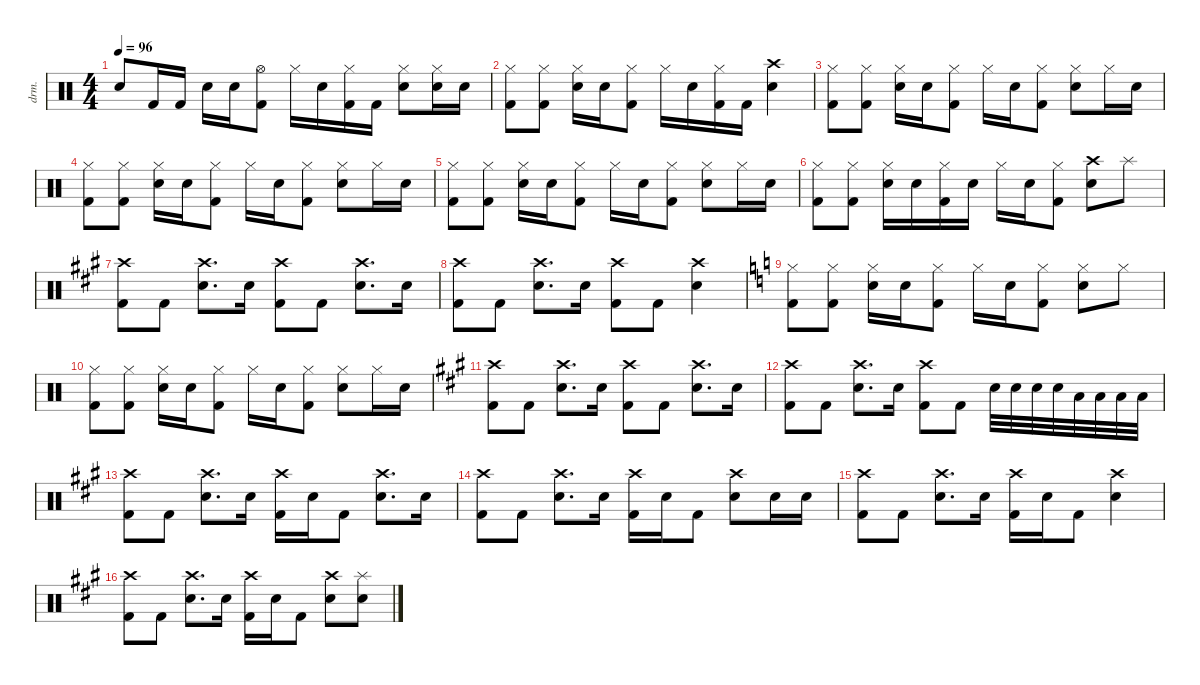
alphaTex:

\defaultSystemsLayout 4
\hideDynamics
\bracketExtendMode nobrackets
\track ("Percussion" "drm.") {instrument percussion}
\staff {score}
\articulation defaults
\ts (4 4)
\tempo 96
\clef neutral
\ks c "Snare (hit) 2".8{dy f} "Kick (hit) 2".16 "Kick (hit) 2".16 "Snare (hit) 2".16 "Snare (hit) 2".16
("Hi-Hat (open)" "Kick (hit) 2").8 "Hi-Hat (closed)".16 "Snare (hit) 2".16 ("Hi-Hat (closed)" "Kick (hit) 2").16 "Kick (hit) 2".16 ("Snare (hit) 2" "Hi-Hat (closed)").8 ("Snare (hit) 2" "Hi-Hat (closed)").16 "Snare (hit) 2".16 |
("Hi-Hat (closed)" "Kick (hit) 2").8 ("Hi-Hat (closed)" "Kick (hit) 2").8 ("Hi-Hat (closed)" "Snare (hit) 2").16 "Snare (hit) 2".16 ("Hi-Hat (closed)" "Kick (hit) 2").8 "Hi-Hat (closed)".16 "Snare (hit) 2".16 ("Hi-Hat (closed)" "Kick (hit) 2").16 "Kick (hit) 2".16 ("Crash high (hit)" "Snare (hit) 2").4 |
("Hi-Hat (closed)" "Kick (hit) 2").8 ("Hi-Hat (closed)" "Kick (hit) 2").8 ("Hi-Hat (closed)" "Snare (hit) 2").16 "Snare (hit) 2".16 ("Hi-Hat (closed)" "Kick (hit) 2").8 "Hi-Hat (closed)".16 "Snare (hit) 2".16 ("Hi-Hat (closed)" "Kick (hit) 2").8 ("Hi-Hat (closed)" "Snare (hit) 2").8 "Hi-Hat (closed)".16 "Snare (hit) 2".16 |
("Hi-Hat (closed)" "Kick (hit) 2").8 ("Hi-Hat (closed)" "Kick (hit) 2").8 ("Hi-Hat (closed)" "Snare (hit) 2").16 "Snare (hit) 2".16 ("Hi-Hat (closed)" "Kick (hit) 2").8 "Hi-Hat (closed)".16 "Snare (hit) 2".16 ("Hi-Hat (closed)" "Kick (hit) 2").8 ("Hi-Hat (closed)" "Snare (hit) 2").8 "Hi-Hat (closed)".16 "Snare (hit) 2".16 |
("Hi-Hat (closed)" "Kick (hit) 2").8 ("Hi-Hat (closed)" "Kick (hit) 2").8 ("Hi-Hat (closed)" "Snare (hit) 2").16 "Snare (hit) 2".16 ("Hi-Hat (closed)" "Kick (hit) 2").8 "Hi-Hat (closed)".16 "Snare (hit) 2".16 ("Hi-Hat (closed)" "Kick (hit) 2").8 ("Hi-Hat (closed)" "Snare (hit) 2").8 "Hi-Hat (closed)".16 "Snare (hit) 2".16 |
("Hi-Hat (closed)" "Kick (hit) 2").8 ("Hi-Hat (closed)" "Kick (hit) 2").8 ("Hi-Hat (closed)" "Snare (hit) 2").16 "Snare (hit) 2".16 ("Hi-Hat (closed)" "Kick (hit) 2").16 "Snare (hit) 2".16 "Hi-Hat (closed)".16 "Snare (hit) 2".16 ("Hi-Hat (closed)" "Kick (hit) 2").8 ("Crash high (hit)" "Snare (hit) 2").8 "Splash (hit)".8 |
\ks a
("Crash high (hit)"{acc forcenatural} "Kick (hit) 2"{acc forcenatural}).8 "Kick (hit) 2"{acc forcenatural}.8 ("Crash high (hit)"{acc forcenatural} "Snare (hit) 2"{acc forcenatural}).8{d} "Snare (hit) 2"{acc forcenatural}.16 ("Crash high (hit)"{acc forcenatural} "Kick (hit) 2"{acc forcenatural}).8 "Kick (hit) 2"{acc forcenatural}.8 ("Crash high (hit)"{acc forcenatural} "Snare (hit) 2"{acc forcenatural}).8{d} "Snare (hit) 2"{acc forcenatural}.16 |
("Crash high (hit)"{acc forcenatural} "Kick (hit) 2"{acc forcenatural}).8 "Kick (hit) 2"{acc forcenatural}.8 ("Crash high (hit)"{acc forcenatural} "Snare (hit) 2"{acc forcenatural}).8{d} "Snare (hit) 2"{acc forcenatural}.16 ("Crash high (hit)"{acc forcenatural} "Kick (hit) 2"{acc forcenatural}).8 "Kick (hit) 2"{acc forcenatural}.8 ("Crash high (hit)"{acc forcenatural} "Snare (hit) 2"{acc forcenatural}).4 |
\ks c
("Hi-Hat (closed)" "Kick (hit) 2").8 ("Hi-Hat (closed)" "Kick (hit) 2").8 ("Hi-Hat (closed)" "Snare (hit) 2").16 "Snare (hit) 2".16 ("Hi-Hat (closed)" "Kick (hit) 2").8 "Hi-Hat (closed)".16 "Snare (hit) 2".16 ("Hi-Hat (closed)" "Kick (hit) 2").8 ("Hi-Hat (closed)" "Snare (hit) 2").8 "Hi-Hat (closed)".8 |
("Hi-Hat (closed)" "Kick (hit) 2").8 ("Hi-Hat (closed)" "Kick (hit) 2").8 ("Hi-Hat (closed)" "Snare (hit) 2").16 "Snare (hit) 2".16 ("Hi-Hat (closed)" "Kick (hit) 2").8 "Hi-Hat (closed)".16 "Snare (hit) 2".16 ("Hi-Hat (closed)" "Kick (hit) 2").8 ("Hi-Hat (closed)" "Snare (hit) 2").8 "Hi-Hat (closed)".16 "Snare (hit) 2".16 |
\ks a
("Crash high (hit)"{acc forcenatural} "Kick (hit) 2"{acc forcenatural}).8 "Kick (hit) 2"{acc forcenatural}.8 ("Crash high (hit)"{acc forcenatural} "Snare (hit) 2"{acc forcenatural}).8{d} "Snare (hit) 2"{acc forcenatural}.16 ("Crash high (hit)"{acc forcenatural} "Kick (hit) 2"{acc forcenatural}).8 "Kick (hit) 2"{acc forcenatural}.8 ("Crash high (hit)"{acc forcenatural} "Snare (hit) 2"{acc forcenatural}).8{d} "Snare (hit) 2"{acc forcenatural}.16 |
("Crash high (hit)"{acc forcenatural} "Kick (hit) 2"{acc forcenatural}).8 "Kick (hit) 2"{acc forcenatural}.8 ("Crash high (hit)"{acc forcenatural} "Snare (hit) 2"{acc forcenatural}).8{d} "Snare (hit) 2"{acc forcenatural}.16 ("Crash high (hit)"{acc forcenatural} "Kick (hit) 2"{acc forcenatural}).8 "Kick (hit) 2"{acc forcenatural}.8 "Snare (hit) 2"{acc forcenatural}.32 "Snare (hit) 2"{acc forcenatural}.32 "Snare (hit) 2"{acc forcenatural}.32 "Snare (hit) 2"{acc forcenatural}.32 "Low Tom (hit)"{acc forcenatural}.32 "Low Tom (hit)"{acc forcenatural}.32 "Low Tom (hit)"{acc forcenatural}.32 "Low Tom (hit)"{acc forcenatural}.32 |
("Crash high (hit)"{acc forcenatural} "Kick (hit) 2"{acc forcenatural}).8 "Kick (hit) 2"{acc forcenatural}.8 ("Crash high (hit)"{acc forcenatural} "Snare (hit) 2"{acc forcenatural}).8{d} "Snare (hit) 2"{acc forcenatural}.16 ("Crash high (hit)"{acc forcenatural} "Kick (hit) 2"{acc forcenatural}).16 "Snare (hit) 2"{acc forcenatural}.16 "Kick (hit) 2"{acc forcenatural}.8 ("Crash high (hit)"{acc forcenatural} "Snare (hit) 2"{acc forcenatural}).8{d} "Snare (hit) 2"{acc forcenatural}.16 |
("Crash high (hit)"{acc forcenatural} "Kick (hit) 2"{acc forcenatural}).8 "Kick (hit) 2"{acc forcenatural}.8 ("Crash high (hit)"{acc forcenatural} "Snare (hit) 2"{acc forcenatural}).8{d} "Snare (hit) 2"{acc forcenatural}.16 ("Crash high (hit)"{acc forcenatural} "Kick (hit) 2"{acc forcenatural}).16 "Snare (hit) 2"{acc forcenatural}.16 "Kick (hit) 2"{acc forcenatural}.8 ("Crash high (hit)"{acc forcenatural} "Snare (hit) 2"{acc forcenatural}).8 "Snare (hit) 2"{acc forcenatural}.16 "Snare (hit) 2"{acc forcenatural}.16 |
("Crash high (hit)"{acc forcenatural} "Kick (hit) 2"{acc forcenatural}).8 "Kick (hit) 2"{acc forcenatural}.8 ("Crash high (hit)"{acc forcenatural} "Snare (hit) 2"{acc forcenatural}).8{d} "Snare (hit) 2"{acc forcenatural}.16 ("Crash high (hit)"{acc forcenatural} "Kick (hit) 2"{acc forcenatural}).16 "Snare (hit) 2"{acc forcenatural}.16 "Kick (hit) 2"{acc forcenatural}.8 ("Crash high (hit)"{acc forcenatural} "Snare (hit) 2"{acc forcenatural}).4 |
("Crash high (hit)"{acc forcenatural} "Kick (hit) 2"{acc forcenatural}).8 "Kick (hit) 2"{acc forcenatural}.8 ("Crash high (hit)"{acc forcenatural} "Snare (hit) 2"{acc forcenatural}).8{d} "Snare (hit) 2"{acc forcenatural}.16 ("Crash high (hit)"{acc forcenatural} "Kick (hit) 2"{acc forcenatural}).16 "Snare (hit) 2"{acc forcenatural}.16 "Kick (hit) 2"{acc forcenatural}.8 ("Crash high (hit)"{acc forcenatural} "Snare (hit) 2"{acc forcenatural}).8 ("Splash (hit)"{acc forcenatural} "Snare (hit) 2"{acc forcenatural}).8{dy mf}
